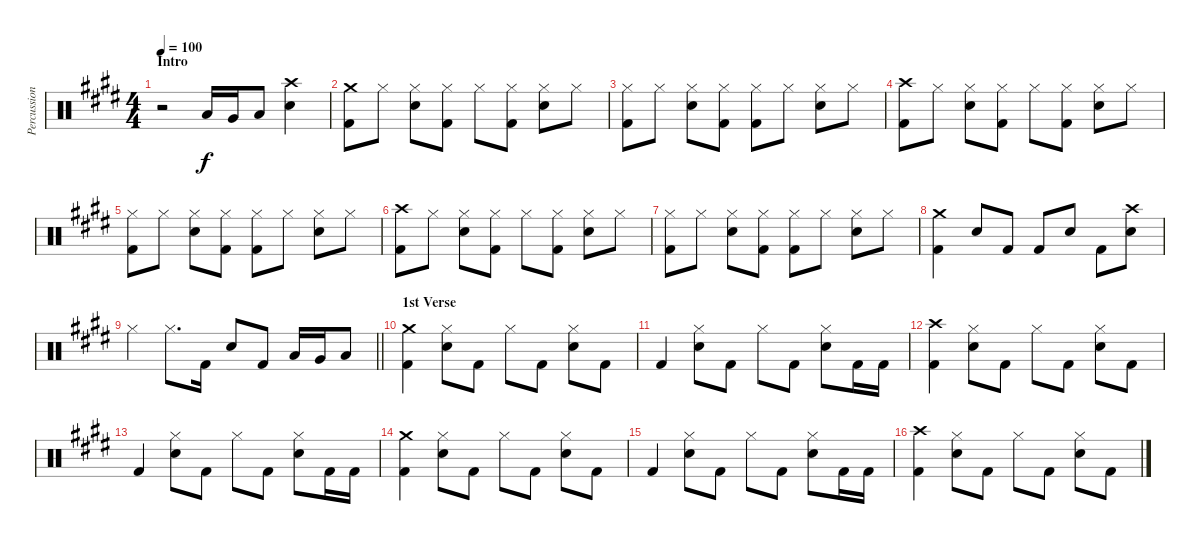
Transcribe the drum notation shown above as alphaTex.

\track ("Percussion" "Percussion") {instrument percussion}
\staff {score}
\articulation defaults
\ts (4 4)
\section ("" "Intro")
\tempo 100
\clef neutral
\ks c#minor
r.2{dy f} "Low Tom (hit)".16 "Very Low Tom (hit)".16 "Low Floor Tom (hit)".8 ("Crash high (hit)" "Snare (hit) 2").4 |
("Crash medium (hit)" "Kick (hit) 2").8 "Hi-Hat (closed)".8 ("Hi-Hat (closed)" "Snare (hit) 2").8 ("Hi-Hat (closed)" "Kick (hit) 2").8 "Hi-Hat (closed)".8 ("Hi-Hat (closed)" "Kick (hit) 2").8 ("Hi-Hat (closed)" "Snare (hit) 2").8 "Hi-Hat (closed)".8 |
("Hi-Hat (closed)" "Kick (hit) 2").8 "Hi-Hat (closed)".8 ("Hi-Hat (closed)" "Snare (hit) 2").8 ("Hi-Hat (closed)" "Kick (hit) 2").8 ("Hi-Hat (closed)" "Kick (hit) 2").8 "Hi-Hat (closed)".8 ("Hi-Hat (closed)" "Snare (hit) 2").8 "Hi-Hat (closed)".8 |
("Crash high (hit)" "Kick (hit) 2").8 "Hi-Hat (closed)".8 ("Hi-Hat (closed)" "Snare (hit) 2").8 ("Hi-Hat (closed)" "Kick (hit) 2").8 "Hi-Hat (closed)".8 ("Hi-Hat (closed)" "Kick (hit) 2").8 ("Hi-Hat (closed)" "Snare (hit) 2").8 "Hi-Hat (closed)".8 |
("Hi-Hat (closed)" "Kick (hit) 2").8 "Hi-Hat (closed)".8 ("Hi-Hat (closed)" "Snare (hit) 2").8 ("Hi-Hat (closed)" "Kick (hit) 2").8 ("Hi-Hat (closed)" "Kick (hit) 2").8 "Hi-Hat (closed)".8 ("Hi-Hat (closed)" "Snare (hit) 2").8 "Hi-Hat (closed)".8 |
("Crash high (hit)" "Kick (hit) 2").8 "Hi-Hat (closed)".8 ("Hi-Hat (closed)" "Snare (hit) 2").8 ("Hi-Hat (closed)" "Kick (hit) 2").8 "Hi-Hat (closed)".8 ("Hi-Hat (closed)" "Kick (hit) 2").8 ("Hi-Hat (closed)" "Snare (hit) 2").8 "Hi-Hat (closed)".8 |
("Hi-Hat (closed)" "Kick (hit) 2").8 "Hi-Hat (closed)".8 ("Hi-Hat (closed)" "Snare (hit) 2").8 ("Hi-Hat (closed)" "Kick (hit) 2").8 ("Hi-Hat (closed)" "Kick (hit) 2").8 "Hi-Hat (closed)".8 ("Hi-Hat (closed)" "Snare (hit) 2").8 "Hi-Hat (closed)".8 |
("Crash medium (hit)" "Kick (hit) 2").4 "Snare (hit) 2".8 "Kick (hit) 2".8 "Kick (hit) 2".8 "Snare (hit) 2".8 "Kick (hit) 2".8 ("Crash high (hit)" "Snare (hit) 2").8 |
\barLineRight lightlight "Hi-Hat (closed)".4 "Hi-Hat (closed)".8{d} "Kick (hit) 2".16 "Snare (hit) 2".8 "Kick (hit) 2".8 "Low Tom (hit)".16 "Very Low Tom (hit)".16 "Low Floor Tom (hit)".8
|
\section ("" "1st Verse")
("Crash medium (hit)" "Kick (hit) 2").4 ("Hi-Hat (closed)" "Snare (hit) 2").8 "Kick (hit) 2".8 "Hi-Hat (closed)".8 "Kick (hit) 2".8 ("Hi-Hat (closed)" "Snare (hit) 2").8 "Kick (hit) 2".8 |
"Kick (hit) 2".4 ("Hi-Hat (closed)" "Snare (hit) 2").8 "Kick (hit) 2".8 "Hi-Hat (closed)".8 "Kick (hit) 2".8 ("Hi-Hat (closed)" "Snare (hit) 2").8 "Kick (hit) 2".16 "Kick (hit) 2".16 |
("Crash high (hit)" "Kick (hit) 2").4 ("Hi-Hat (closed)" "Snare (hit) 2").8 "Kick (hit) 2".8 "Hi-Hat (closed)".8 "Kick (hit) 2".8 ("Hi-Hat (closed)" "Snare (hit) 2").8 "Kick (hit) 2".8 |
"Kick (hit) 2".4 ("Hi-Hat (closed)" "Snare (hit) 2").8 "Kick (hit) 2".8 "Hi-Hat (closed)".8 "Kick (hit) 2".8 ("Hi-Hat (closed)" "Snare (hit) 2").8 "Kick (hit) 2".16 "Kick (hit) 2".16 |
("Crash medium (hit)" "Kick (hit) 2").4 ("Hi-Hat (closed)" "Snare (hit) 2").8 "Kick (hit) 2".8 "Hi-Hat (closed)".8 "Kick (hit) 2".8 ("Hi-Hat (closed)" "Snare (hit) 2").8 "Kick (hit) 2".8 |
"Kick (hit) 2".4 ("Hi-Hat (closed)" "Snare (hit) 2").8 "Kick (hit) 2".8 "Hi-Hat (closed)".8 "Kick (hit) 2".8 ("Hi-Hat (closed)" "Snare (hit) 2").8 "Kick (hit) 2".16 "Kick (hit) 2".16 |
("Crash high (hit)" "Kick (hit) 2").4 ("Hi-Hat (closed)" "Snare (hit) 2").8 "Kick (hit) 2".8 "Hi-Hat (closed)".8 "Kick (hit) 2".8 ("Hi-Hat (closed)" "Snare (hit) 2").8 "Kick (hit) 2".8
